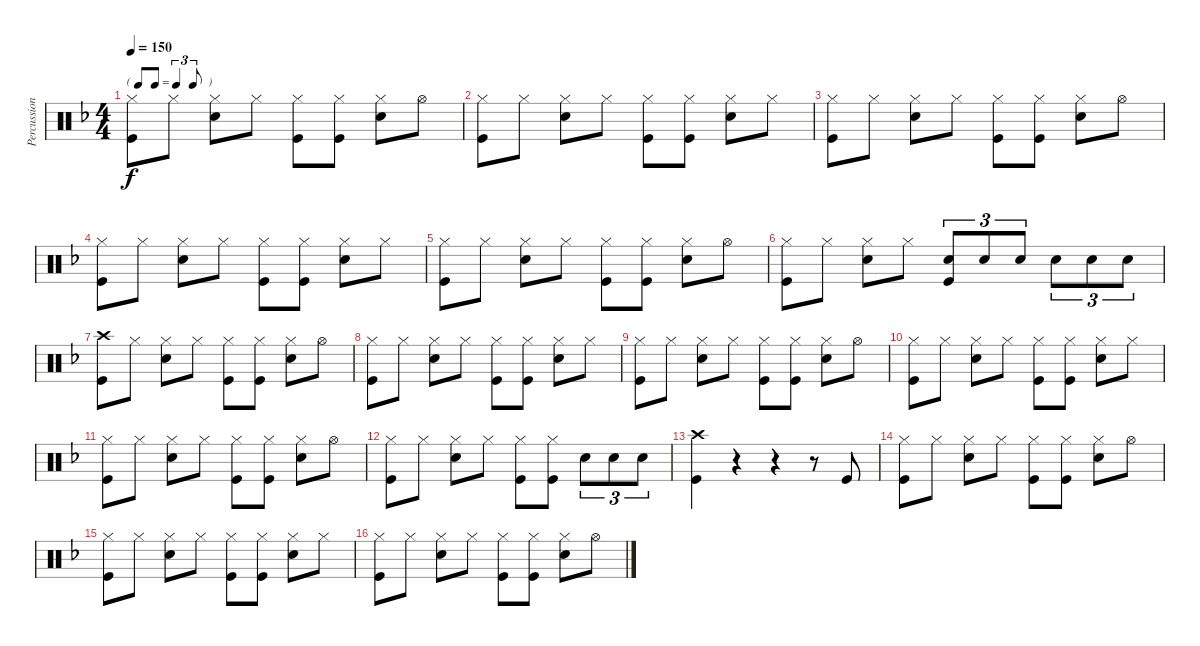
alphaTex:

\track ("Percussion" "Percussion") {instrument percussion}
\staff {score}
\articulation defaults
\ts (4 4)
\tf triplet8th
\tempo 150
\clef neutral
\ks f
("Hi-Hat (closed)" "Kick (hit)").8{dy f} "Hi-Hat (closed)".8 ("Hi-Hat (closed)" "Snare (hit) 2").8 "Hi-Hat (closed)".8 ("Hi-Hat (closed)" "Kick (hit)").8 ("Hi-Hat (closed)" "Kick (hit)").8 ("Hi-Hat (closed)" "Snare (hit) 2").8 "Hi-Hat (open)".8 |
("Hi-Hat (closed)" "Kick (hit)").8 "Hi-Hat (closed)".8 ("Hi-Hat (closed)" "Snare (hit) 2").8 "Hi-Hat (closed)".8 ("Hi-Hat (closed)" "Kick (hit)").8 ("Hi-Hat (closed)" "Kick (hit)").8 ("Hi-Hat (closed)" "Snare (hit) 2").8 "Hi-Hat (closed)".8 |
("Hi-Hat (closed)" "Kick (hit)").8 "Hi-Hat (closed)".8 ("Hi-Hat (closed)" "Snare (hit) 2").8 "Hi-Hat (closed)".8 ("Hi-Hat (closed)" "Kick (hit)").8 ("Hi-Hat (closed)" "Kick (hit)").8 ("Hi-Hat (closed)" "Snare (hit) 2").8 "Hi-Hat (open)".8 |
("Hi-Hat (closed)" "Kick (hit)").8 "Hi-Hat (closed)".8 ("Hi-Hat (closed)" "Snare (hit) 2").8 "Hi-Hat (closed)".8 ("Hi-Hat (closed)" "Kick (hit)").8 ("Hi-Hat (closed)" "Kick (hit)").8 ("Hi-Hat (closed)" "Snare (hit) 2").8 "Hi-Hat (closed)".8 |
("Hi-Hat (closed)" "Kick (hit)").8 "Hi-Hat (closed)".8 ("Hi-Hat (closed)" "Snare (hit) 2").8 "Hi-Hat (closed)".8 ("Hi-Hat (closed)" "Kick (hit)").8 ("Hi-Hat (closed)" "Kick (hit)").8 ("Hi-Hat (closed)" "Snare (hit) 2").8 "Hi-Hat (open)".8 |
("Hi-Hat (closed)" "Kick (hit)").8 "Hi-Hat (closed)".8 ("Hi-Hat (closed)" "Snare (hit) 2").8 "Hi-Hat (closed)".8 ("Snare (hit) 2" "Kick (hit)").8{tu (3 2)} "Snare (hit) 2".8{tu (3 2)} "Snare (hit) 2".8{tu (3 2)} "Snare (hit) 2".8{tu (3 2)} "Snare (hit) 2".8{tu (3 2)} "Snare (hit) 2".8{tu (3 2)} |
("Crash high (hit)" "Kick (hit)").8 "Hi-Hat (closed)".8 ("Hi-Hat (closed)" "Snare (hit) 2").8 "Hi-Hat (closed)".8 ("Hi-Hat (closed)" "Kick (hit)").8 ("Hi-Hat (closed)" "Kick (hit)").8 ("Hi-Hat (closed)" "Snare (hit) 2").8 "Hi-Hat (open)".8 |
("Hi-Hat (closed)" "Kick (hit)").8 "Hi-Hat (closed)".8 ("Hi-Hat (closed)" "Snare (hit) 2").8 "Hi-Hat (closed)".8 ("Hi-Hat (closed)" "Kick (hit)").8 ("Hi-Hat (closed)" "Kick (hit)").8 ("Hi-Hat (closed)" "Snare (hit) 2").8 "Hi-Hat (closed)".8 |
("Hi-Hat (closed)" "Kick (hit)").8 "Hi-Hat (closed)".8 ("Hi-Hat (closed)" "Snare (hit) 2").8 "Hi-Hat (closed)".8 ("Hi-Hat (closed)" "Kick (hit)").8 ("Hi-Hat (closed)" "Kick (hit)").8 ("Hi-Hat (closed)" "Snare (hit) 2").8 "Hi-Hat (open)".8 |
("Hi-Hat (closed)" "Kick (hit)").8 "Hi-Hat (closed)".8 ("Hi-Hat (closed)" "Snare (hit) 2").8 "Hi-Hat (closed)".8 ("Hi-Hat (closed)" "Kick (hit)").8 ("Hi-Hat (closed)" "Kick (hit)").8 ("Hi-Hat (closed)" "Snare (hit) 2").8 "Hi-Hat (closed)".8 |
("Hi-Hat (closed)" "Kick (hit)").8 "Hi-Hat (closed)".8 ("Hi-Hat (closed)" "Snare (hit) 2").8 "Hi-Hat (closed)".8 ("Hi-Hat (closed)" "Kick (hit)").8 ("Hi-Hat (closed)" "Kick (hit)").8 ("Hi-Hat (closed)" "Snare (hit) 2").8 "Hi-Hat (open)".8 |
("Hi-Hat (closed)" "Kick (hit)").8 "Hi-Hat (closed)".8 ("Hi-Hat (closed)" "Snare (hit) 2").8 "Hi-Hat (closed)".8 ("Hi-Hat (closed)" "Kick (hit)").8 ("Hi-Hat (closed)" "Kick (hit)").8 "Snare (hit) 2".8{tu (3 2)} "Snare (hit) 2".8{tu (3 2)} "Snare (hit) 2".8{tu (3 2)} |
("Crash high (hit)" "Kick (hit)").4 r.4 r.4 r.8 "Kick (hit)".8 |
("Hi-Hat (closed)" "Kick (hit)").8 "Hi-Hat (closed)".8 ("Hi-Hat (closed)" "Snare (hit) 2").8 "Hi-Hat (closed)".8 ("Hi-Hat (closed)" "Kick (hit)").8 ("Hi-Hat (closed)" "Kick (hit)").8 ("Hi-Hat (closed)" "Snare (hit) 2").8 "Hi-Hat (open)".8 |
("Hi-Hat (closed)" "Kick (hit)").8 "Hi-Hat (closed)".8 ("Hi-Hat (closed)" "Snare (hit) 2").8 "Hi-Hat (closed)".8 ("Hi-Hat (closed)" "Kick (hit)").8 ("Hi-Hat (closed)" "Kick (hit)").8 ("Hi-Hat (closed)" "Snare (hit) 2").8 "Hi-Hat (closed)".8 |
("Hi-Hat (closed)" "Kick (hit)").8 "Hi-Hat (closed)".8 ("Hi-Hat (closed)" "Snare (hit) 2").8 "Hi-Hat (closed)".8 ("Hi-Hat (closed)" "Kick (hit)").8 ("Hi-Hat (closed)" "Kick (hit)").8 ("Hi-Hat (closed)" "Snare (hit) 2").8 "Hi-Hat (open)".8
